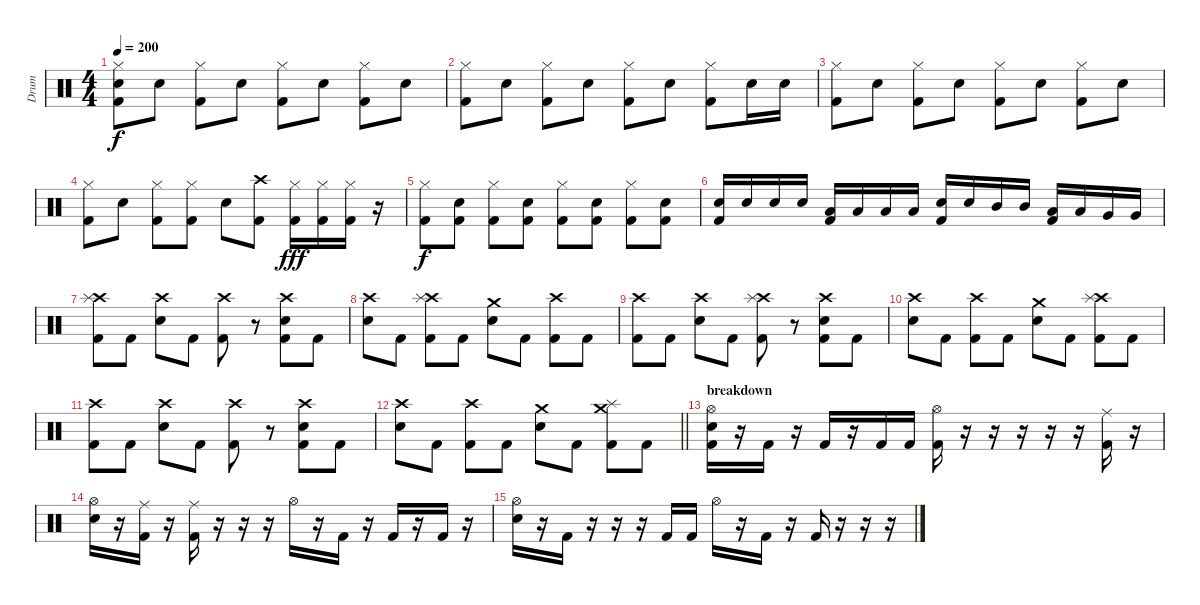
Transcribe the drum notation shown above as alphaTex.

\track ("Drum" "Drum") {instrument percussion}
\staff {score}
\articulation defaults
\ts (4 4)
\tempo 200
\clef neutral
\ks c
("Hi-Hat (closed)" "Electric Snare (hit)" "Kick (hit) 2").8{dy f} "Electric Snare (hit)".8 ("Hi-Hat (closed)" "Kick (hit) 2").8 "Electric Snare (hit)".8 ("Hi-Hat (closed)" "Kick (hit) 2").8 "Electric Snare (hit)".8 ("Hi-Hat (closed)" "Kick (hit) 2").8 "Electric Snare (hit)".8 |
("Hi-Hat (closed)" "Kick (hit) 2").8 "Electric Snare (hit)".8 ("Hi-Hat (closed)" "Kick (hit) 2").8 "Electric Snare (hit)".8 ("Hi-Hat (closed)" "Kick (hit) 2").8 "Electric Snare (hit)".8 ("Hi-Hat (closed)" "Kick (hit) 2").8 "Electric Snare (hit)".16 "Electric Snare (hit)".16 |
("Hi-Hat (closed)" "Kick (hit) 2").8 "Electric Snare (hit)".8 ("Hi-Hat (closed)" "Kick (hit) 2").8 "Electric Snare (hit)".8 ("Hi-Hat (closed)" "Kick (hit) 2").8 "Electric Snare (hit)".8 ("Hi-Hat (closed)" "Kick (hit) 2").8 "Electric Snare (hit)".8 |
("Hi-Hat (closed)" "Kick (hit) 2").8 "Electric Snare (hit)".8 ("Hi-Hat (closed)" "Kick (hit) 2").8 ("Hi-Hat (closed)" "Kick (hit) 2").8 "Electric Snare (hit)".8 ("Crash high (hit)" "Kick (hit) 2").8 ("Hi-Hat (closed)" "Kick (hit) 2").16{dy fff} ("Hi-Hat (closed)" "Kick (hit) 2").16 ("Hi-Hat (closed)" "Kick (hit) 2").16 r.16 |
("Hi-Hat (closed)" "Kick (hit) 2").8{dy f} ("Electric Snare (hit)" "Kick (hit) 2").8 ("Hi-Hat (closed)" "Kick (hit) 2").8 ("Electric Snare (hit)" "Kick (hit) 2").8 ("Hi-Hat (closed)" "Kick (hit) 2").8 ("Electric Snare (hit)" "Kick (hit) 2").8 ("Hi-Hat (closed)" "Kick (hit) 2").8 ("Electric Snare (hit)" "Kick (hit) 2").8 |
("Electric Snare (hit)" "Kick (hit) 2").16 "Electric Snare (hit)".16 "Electric Snare (hit)".16 "Electric Snare (hit)".16 ("Low Tom (hit)" "Kick (hit) 2").16 "Low Tom (hit)".16 "Low Tom (hit)".16 "Low Tom (hit)".16 ("Electric Snare (hit)" "Kick (hit) 2").16 "Electric Snare (hit)".16 "Mid Tom (hit)".16 "Mid Tom (hit)".16 ("Low Tom (hit)" "Kick (hit) 2").16 "Low Tom (hit)".16 "Very Low Tom (hit)".16 "Very Low Tom (hit)".16 |
("Crash high (hit)" "Splash (hit)" "Kick (hit) 2").8 "Kick (hit) 2".8 ("Crash high (hit)" "Electric Snare (hit)").8 "Kick (hit) 2".8 ("Crash high (hit)" "Kick (hit) 2").8 r.8 ("Crash high (hit)" "Electric Snare (hit)" "Kick (hit) 2").8 "Kick (hit) 2".8 |
("Crash high (hit)" "Electric Snare (hit)").8 "Kick (hit) 2".8 ("Crash high (hit)" "Splash (hit)" "Kick (hit) 2").8 "Kick (hit) 2".8 ("Crash medium (hit)" "Electric Snare (hit)").8 "Kick (hit) 2".8 ("Crash high (hit)" "Kick (hit) 2").8 "Kick (hit) 2".8 |
("Crash high (hit)" "Kick (hit) 2").8 "Kick (hit) 2".8 ("Crash high (hit)" "Electric Snare (hit)").8 "Kick (hit) 2".8 ("Crash high (hit)" "Splash (hit)" "Kick (hit) 2").8 r.8 ("Crash high (hit)" "Electric Snare (hit)" "Kick (hit) 2").8 "Kick (hit) 2".8 |
("Crash high (hit)" "Electric Snare (hit)").8 "Kick (hit) 2".8 ("Crash high (hit)" "Kick (hit) 2").8 "Kick (hit) 2".8 ("Crash medium (hit)" "Electric Snare (hit)").8 "Kick (hit) 2".8 ("Crash high (hit)" "Splash (hit)" "Kick (hit) 2").8 "Kick (hit) 2".8 |
("Crash high (hit)" "Kick (hit) 2").8 "Kick (hit) 2".8 ("Crash high (hit)" "Electric Snare (hit)").8 "Kick (hit) 2".8 ("Crash high (hit)" "Kick (hit) 2").8 r.8 ("Crash high (hit)" "Electric Snare (hit)" "Kick (hit) 2").8 "Kick (hit) 2".8 |
\barLineRight lightlight
("Crash high (hit)" "Electric Snare (hit)").8 "Kick (hit) 2".8 ("Crash high (hit)" "Kick (hit) 2").8 "Kick (hit) 2".8 ("Crash medium (hit)" "Electric Snare (hit)").8 "Kick (hit) 2".8 ("Crash medium (hit)" "Splash (hit)" "Kick (hit) 2").8 "Kick (hit) 2".8 |
\section ("" "breakdown")
("Hi-Hat (open)" "Electric Snare (hit)" "Kick (hit) 2").16 r.16 "Kick (hit) 2".16 r.16 "Kick (hit) 2".16 r.16 "Kick (hit) 2".16 "Kick (hit) 2".16 ("Hi-Hat (open)" "Kick (hit) 2").16 r.16 r.16 r.16 r.16 r.16 ("Ride (middle)" "Kick (hit) 2").16 r.16 |
("Hi-Hat (open)" "Electric Snare (hit)").16 r.16 ("Ride (middle)" "Kick (hit) 2").16 r.16 ("Ride (middle)" "Kick (hit) 2").16 r.16 r.16 r.16 "Hi-Hat (open)".16 r.16 "Kick (hit) 2".16 r.16 "Kick (hit) 2".16 r.16 "Kick (hit) 2".16 r.16 |
("Hi-Hat (open)" "Electric Snare (hit)").16 r.16 "Kick (hit) 2".16 r.16 r.16 r.16 "Kick (hit) 2".16 "Kick (hit) 2".16 "Hi-Hat (open)".16 r.16 "Kick (hit) 2".16 r.16 "Kick (hit) 2".16 r.16 r.16 r.16
